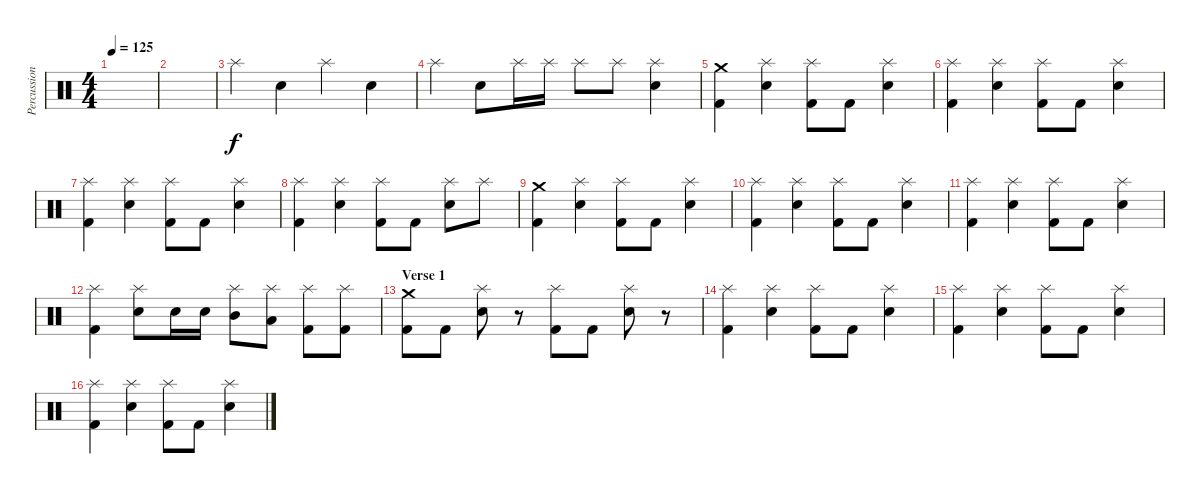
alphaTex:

\track ("Percussion" "Percussion") {instrument percussion}
\staff {score}
\articulation defaults
\ts (4 4)
\tempo 125
\clef neutral
\ks c
|
|
"Splash (hit)".4 "Snare (hit) 2".4 "Splash (hit)".4 "Snare (hit) 2".4 |
"Splash (hit)".4 "Snare (hit) 2".8 "Splash (hit)".16 "Splash (hit)".16 "Splash (hit)".8 "Splash (hit)".8 ("Splash (hit)" "Snare (hit) 2").4 |
("Crash medium (hit)" "Kick (hit) 2").4 ("Splash (hit)" "Snare (hit) 2").4 ("Splash (hit)" "Kick (hit) 2").8 "Kick (hit) 2".8 ("Splash (hit)" "Snare (hit) 2").4 |
("Splash (hit)" "Kick (hit) 2").4 ("Splash (hit)" "Snare (hit) 2").4 ("Splash (hit)" "Kick (hit) 2").8 "Kick (hit) 2".8 ("Splash (hit)" "Snare (hit) 2").4 |
("Splash (hit)" "Kick (hit) 2").4 ("Splash (hit)" "Snare (hit) 2").4 ("Splash (hit)" "Kick (hit) 2").8 "Kick (hit) 2".8 ("Splash (hit)" "Snare (hit) 2").4 |
("Splash (hit)" "Kick (hit) 2").4 ("Splash (hit)" "Snare (hit) 2").4 ("Splash (hit)" "Kick (hit) 2").8 "Kick (hit) 2".8 ("Splash (hit)" "Snare (hit) 2").8 "Splash (hit)".8 |
("Crash medium (hit)" "Kick (hit) 2").4 ("Splash (hit)" "Snare (hit) 2").4 ("Splash (hit)" "Kick (hit) 2").8 "Kick (hit) 2".8 ("Splash (hit)" "Snare (hit) 2").4 |
("Splash (hit)" "Kick (hit) 2").4 ("Splash (hit)" "Snare (hit) 2").4 ("Splash (hit)" "Kick (hit) 2").8 "Kick (hit) 2".8 ("Splash (hit)" "Snare (hit) 2").4 |
("Splash (hit)" "Kick (hit) 2").4 ("Splash (hit)" "Snare (hit) 2").4 ("Splash (hit)" "Kick (hit) 2").8 "Kick (hit) 2".8 ("Splash (hit)" "Snare (hit) 2").4 |
("Splash (hit)" "Kick (hit) 2").4 ("Splash (hit)" "Snare (hit) 2").8 "Snare (hit) 2".16 "Snare (hit) 2".16 ("Splash (hit)" "Mid Tom (hit)").8 ("Splash (hit)" "Low Tom (hit)").8 ("Splash (hit)" "Kick (hit) 2").8 ("Splash (hit)" "Kick (hit) 2").8 |
\section ("" "Verse 1")
("Crash medium (hit)" "Kick (hit) 2").8 "Kick (hit) 2".8 ("Splash (hit)" "Snare (hit) 2").8 r.8 ("Splash (hit)" "Kick (hit) 2").8 "Kick (hit) 2".8 ("Splash (hit)" "Snare (hit) 2").8 r.8 |
("Splash (hit)" "Kick (hit) 2").4 ("Splash (hit)" "Snare (hit) 2").4 ("Splash (hit)" "Kick (hit) 2").8 "Kick (hit) 2".8 ("Splash (hit)" "Snare (hit) 2").4 |
("Splash (hit)" "Kick (hit) 2").4 ("Splash (hit)" "Snare (hit) 2").4 ("Splash (hit)" "Kick (hit) 2").8 "Kick (hit) 2".8 ("Splash (hit)" "Snare (hit) 2").4 |
("Splash (hit)" "Kick (hit) 2").4 ("Splash (hit)" "Snare (hit) 2").4 ("Splash (hit)" "Kick (hit) 2").8 "Kick (hit) 2".8 ("Splash (hit)" "Snare (hit) 2").4
